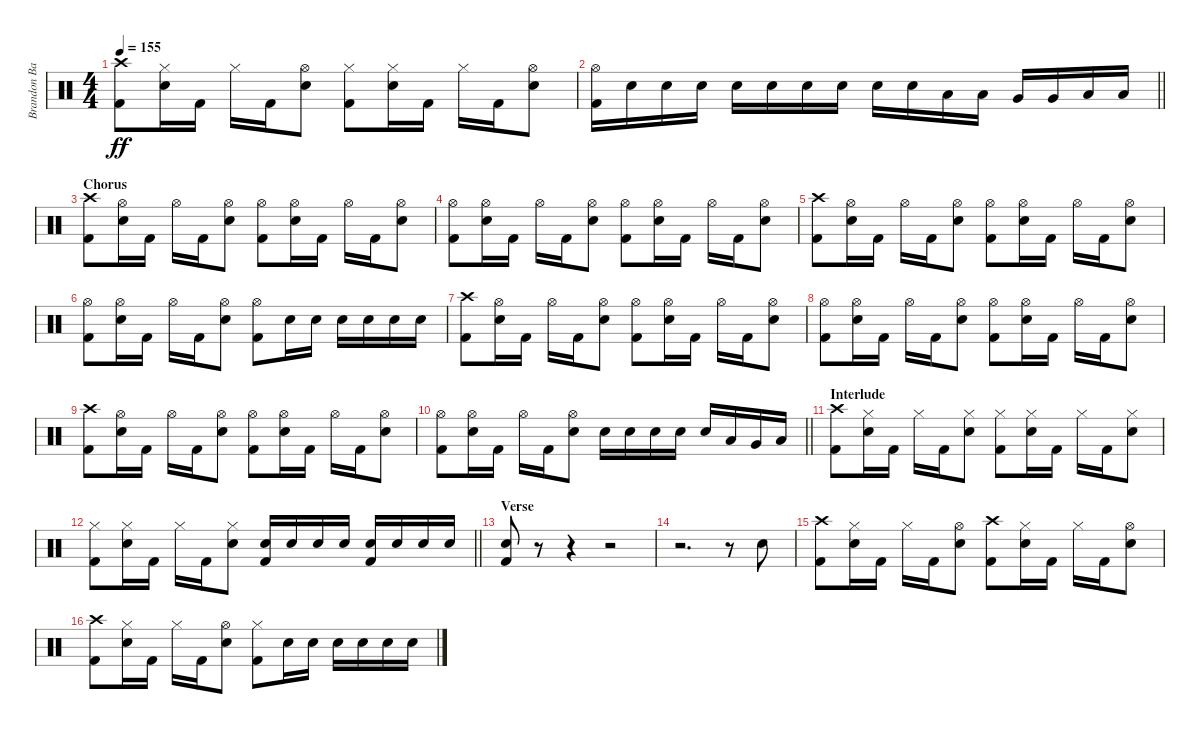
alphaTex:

\track ("Brandon Barnes - Drums" "Brandon Ba") {instrument percussion}
\staff {score}
\articulation defaults
\ts (4 4)
\tempo 155
\clef neutral
\ks c
("Kick (hit) 2" "Crash high (hit)").8{dy ff} ("Snare (hit) 2" "Hi-Hat (closed)").16 "Kick (hit) 2".16 "Hi-Hat (closed)".16 "Kick (hit) 2".16 ("Snare (hit) 2" "Hi-Hat (open)").8 ("Kick (hit) 2" "Hi-Hat (closed)").8 ("Snare (hit) 2" "Hi-Hat (closed)").16 "Kick (hit) 2".16 "Hi-Hat (closed)".16 "Kick (hit) 2".16 ("Snare (hit) 2" "Hi-Hat (open)").8 |
\barLineRight lightlight
("Kick (hit) 2" "Hi-Hat (open)").16 "Snare (hit) 2".16 "Snare (hit) 2".16 "Snare (hit) 2".16 "Snare (hit) 2".16 "Snare (hit) 2".16 "Snare (hit) 2".16 "Snare (hit) 2".16 "Snare (hit) 2".16 "Snare (hit) 2".16 "Low Tom (hit)".16 "Low Tom (hit)".16 "Very Low Tom (hit)".16 "Very Low Tom (hit)".16 "Low Floor Tom (hit)".16 "Low Floor Tom (hit)".16 |
\section ("" "Chorus")
("Kick (hit) 2" "Crash high (hit)").8 ("Snare (hit) 2" "Hi-Hat (open)").16 "Kick (hit) 2".16 "Hi-Hat (open)".16 "Kick (hit) 2".16 ("Snare (hit) 2" "Hi-Hat (open)").8 ("Kick (hit) 2" "Hi-Hat (open)").8 ("Snare (hit) 2" "Hi-Hat (open)").16 "Kick (hit) 2".16 "Hi-Hat (open)".16 "Kick (hit) 2".16 ("Snare (hit) 2" "Hi-Hat (open)").8 |
("Kick (hit) 2" "Hi-Hat (open)").8 ("Snare (hit) 2" "Hi-Hat (open)").16 "Kick (hit) 2".16 "Hi-Hat (open)".16 "Kick (hit) 2".16 ("Snare (hit) 2" "Hi-Hat (open)").8 ("Kick (hit) 2" "Hi-Hat (open)").8 ("Snare (hit) 2" "Hi-Hat (open)").16 "Kick (hit) 2".16 "Hi-Hat (open)".16 "Kick (hit) 2".16 ("Snare (hit) 2" "Hi-Hat (open)").8 |
("Kick (hit) 2" "Crash high (hit)").8 ("Snare (hit) 2" "Hi-Hat (open)").16 "Kick (hit) 2".16 "Hi-Hat (open)".16 "Kick (hit) 2".16 ("Snare (hit) 2" "Hi-Hat (open)").8 ("Kick (hit) 2" "Hi-Hat (open)").8 ("Snare (hit) 2" "Hi-Hat (open)").16 "Kick (hit) 2".16 "Hi-Hat (open)".16 "Kick (hit) 2".16 ("Snare (hit) 2" "Hi-Hat (open)").8 |
("Kick (hit) 2" "Hi-Hat (open)").8 ("Snare (hit) 2" "Hi-Hat (open)").16 "Kick (hit) 2".16 "Hi-Hat (open)".16 "Kick (hit) 2".16 ("Snare (hit) 2" "Hi-Hat (open)").8 ("Kick (hit) 2" "Hi-Hat (open)").8 "Snare (hit) 2".16 "Snare (hit) 2".16 "Snare (hit) 2".16 "Snare (hit) 2".16 "Snare (hit) 2".16 "Snare (hit) 2".16 |
("Kick (hit) 2" "Crash high (hit)").8 ("Snare (hit) 2" "Hi-Hat (open)").16 "Kick (hit) 2".16 "Hi-Hat (open)".16 "Kick (hit) 2".16 ("Snare (hit) 2" "Hi-Hat (open)").8 ("Kick (hit) 2" "Hi-Hat (open)").8 ("Snare (hit) 2" "Hi-Hat (open)").16 "Kick (hit) 2".16 "Hi-Hat (open)".16 "Kick (hit) 2".16 ("Snare (hit) 2" "Hi-Hat (open)").8 |
("Kick (hit) 2" "Hi-Hat (open)").8 ("Snare (hit) 2" "Hi-Hat (open)").16 "Kick (hit) 2".16 "Hi-Hat (open)".16 "Kick (hit) 2".16 ("Snare (hit) 2" "Hi-Hat (open)").8 ("Kick (hit) 2" "Hi-Hat (open)").8 ("Snare (hit) 2" "Hi-Hat (open)").16 "Kick (hit) 2".16 "Hi-Hat (open)".16 "Kick (hit) 2".16 ("Snare (hit) 2" "Hi-Hat (open)").8 |
("Kick (hit) 2" "Crash high (hit)").8 ("Snare (hit) 2" "Hi-Hat (open)").16 "Kick (hit) 2".16 "Hi-Hat (open)".16 "Kick (hit) 2".16 ("Snare (hit) 2" "Hi-Hat (open)").8 ("Kick (hit) 2" "Hi-Hat (open)").8 ("Snare (hit) 2" "Hi-Hat (open)").16 "Kick (hit) 2".16 "Hi-Hat (open)".16 "Kick (hit) 2".16 ("Snare (hit) 2" "Hi-Hat (open)").8 |
\barLineRight lightlight
("Kick (hit) 2" "Hi-Hat (open)").8 ("Snare (hit) 2" "Hi-Hat (open)").16 "Kick (hit) 2".16 "Hi-Hat (open)".16 "Kick (hit) 2".16 ("Snare (hit) 2" "Hi-Hat (open)").8 "Snare (hit) 2".16 "Snare (hit) 2".16 "Snare (hit) 2".16 "Snare (hit) 2".16 "Snare (hit) 2".16 "Low Tom (hit)".16 "Very Low Tom (hit)".16 "Low Floor Tom (hit)".16 |
\section ("" "Interlude")
("Kick (hit) 2" "Crash high (hit)").8 ("Snare (hit) 2" "Hi-Hat (closed)").16 "Kick (hit) 2".16 "Hi-Hat (closed)".16 "Kick (hit) 2".16 ("Snare (hit) 2" "Hi-Hat (closed)").8 ("Kick (hit) 2" "Hi-Hat (closed)").8 ("Snare (hit) 2" "Hi-Hat (closed)").16 "Kick (hit) 2".16 "Hi-Hat (closed)".16 "Kick (hit) 2".16 ("Snare (hit) 2" "Hi-Hat (closed)").8 |
\barLineRight lightlight
("Kick (hit) 2" "Hi-Hat (closed)").8 ("Snare (hit) 2" "Hi-Hat (closed)").16 "Kick (hit) 2".16 "Hi-Hat (closed)".16 "Kick (hit) 2".16 ("Snare (hit) 2" "Hi-Hat (closed)").8 ("Kick (hit) 2" "Snare (hit) 2").16 "Snare (hit) 2".16 "Snare (hit) 2".16 "Snare (hit) 2".16 ("Kick (hit) 2" "Snare (hit) 2").16 "Snare (hit) 2".16 "Snare (hit) 2".16 "Snare (hit) 2".16 |
\section ("" "Verse")
("Snare (hit) 2" "Kick (hit) 2").8 r.8 r.4 r.2 |
r.2{d} r.8 "Snare (hit) 2".8 |
("Kick (hit) 2" "Crash high (hit)").8 ("Snare (hit) 2" "Hi-Hat (closed)").16 "Kick (hit) 2".16 "Hi-Hat (closed)".16 "Kick (hit) 2".16 ("Snare (hit) 2" "Hi-Hat (open)").8 ("Kick (hit) 2" "Crash high (hit)").8 ("Snare (hit) 2" "Hi-Hat (closed)").16 "Kick (hit) 2".16 "Hi-Hat (closed)".16 "Kick (hit) 2".16 ("Snare (hit) 2" "Hi-Hat (open)").8 |
("Kick (hit) 2" "Crash high (hit)").8 ("Snare (hit) 2" "Hi-Hat (closed)").16 "Kick (hit) 2".16 "Hi-Hat (closed)".16 "Kick (hit) 2".16 ("Snare (hit) 2" "Hi-Hat (open)").8 ("Kick (hit) 2" "Hi-Hat (closed)").8 "Snare (hit) 2".16 "Snare (hit) 2".16 "Snare (hit) 2".16 "Snare (hit) 2".16 "Snare (hit) 2".16 "Snare (hit) 2".16
